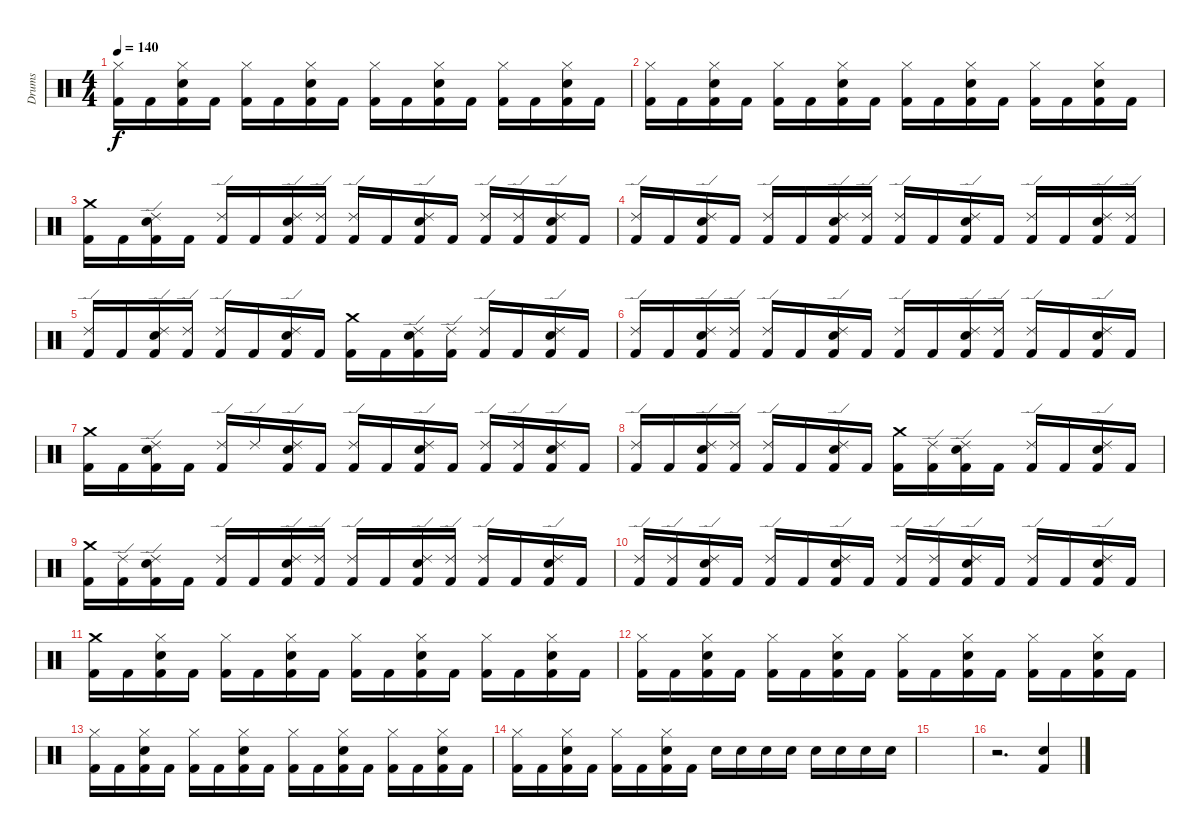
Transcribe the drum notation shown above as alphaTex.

\track ("Drums" "Drums") {instrument percussion}
\staff {score}
\articulation defaults
\ts (4 4)
\tempo 140
\clef neutral
\ks c
("Hi-Hat (closed)" "Kick (hit) 2").16{dy f} "Kick (hit) 2".16 ("Hi-Hat (closed)" "Electric Snare (hit)" "Kick (hit) 2").16 "Kick (hit) 2".16 ("Hi-Hat (closed)" "Kick (hit) 2").16 "Kick (hit) 2".16 ("Hi-Hat (closed)" "Electric Snare (hit)" "Kick (hit) 2").16 "Kick (hit) 2".16 ("Hi-Hat (closed)" "Kick (hit) 2").16 "Kick (hit) 2".16 ("Hi-Hat (closed)" "Electric Snare (hit)" "Kick (hit) 2").16 "Kick (hit) 2".16 ("Hi-Hat (closed)" "Kick (hit) 2").16 "Kick (hit) 2".16 ("Hi-Hat (closed)" "Electric Snare (hit)" "Kick (hit) 2").16 "Kick (hit) 2".16 |
("Hi-Hat (closed)" "Kick (hit) 2").16 "Kick (hit) 2".16 ("Hi-Hat (closed)" "Electric Snare (hit)" "Kick (hit) 2").16 "Kick (hit) 2".16 ("Hi-Hat (closed)" "Kick (hit) 2").16 "Kick (hit) 2".16 ("Hi-Hat (closed)" "Electric Snare (hit)" "Kick (hit) 2").16 "Kick (hit) 2".16 ("Hi-Hat (closed)" "Kick (hit) 2").16 "Kick (hit) 2".16 ("Hi-Hat (closed)" "Electric Snare (hit)" "Kick (hit) 2").16 "Kick (hit) 2".16 ("Hi-Hat (closed)" "Kick (hit) 2").16 "Kick (hit) 2".16 ("Hi-Hat (closed)" "Electric Snare (hit)" "Kick (hit) 2").16 "Kick (hit) 2".16 |
("Crash medium (hit)" "Kick (hit) 2").16 "Kick (hit) 2".16 ("Ride (edge) 2" "Electric Snare (hit)" "Kick (hit) 2").16 "Kick (hit) 2".16 ("Ride (edge) 2" "Kick (hit) 2").16 "Kick (hit) 2".16 ("Ride (edge) 2" "Electric Snare (hit)" "Kick (hit) 2").16 ("Ride (edge) 2" "Kick (hit) 2").16 ("Ride (edge) 2" "Kick (hit) 2").16 "Kick (hit) 2".16 ("Ride (edge) 2" "Electric Snare (hit)" "Kick (hit) 2").16 "Kick (hit) 2".16 ("Ride (edge) 2" "Kick (hit) 2").16 ("Ride (edge) 2" "Kick (hit) 2").16 ("Ride (edge) 2" "Electric Snare (hit)" "Kick (hit) 2").16 "Kick (hit) 2".16 |
("Ride (edge) 2" "Kick (hit) 2").16 "Kick (hit) 2".16 ("Ride (edge) 2" "Electric Snare (hit)" "Kick (hit) 2").16 "Kick (hit) 2".16 ("Ride (edge) 2" "Kick (hit) 2").16 "Kick (hit) 2".16 ("Ride (edge) 2" "Electric Snare (hit)" "Kick (hit) 2").16 ("Ride (edge) 2" "Kick (hit) 2").16 ("Ride (edge) 2" "Kick (hit) 2").16 "Kick (hit) 2".16 ("Ride (edge) 2" "Electric Snare (hit)" "Kick (hit) 2").16 "Kick (hit) 2".16 ("Ride (edge) 2" "Kick (hit) 2").16 "Kick (hit) 2".16 ("Ride (edge) 2" "Electric Snare (hit)" "Kick (hit) 2").16 ("Ride (edge) 2" "Kick (hit) 2").16 |
("Ride (edge) 2" "Kick (hit) 2").16 "Kick (hit) 2".16 ("Ride (edge) 2" "Electric Snare (hit)" "Kick (hit) 2").16 ("Ride (edge) 2" "Kick (hit) 2").16 ("Ride (edge) 2" "Kick (hit) 2").16 "Kick (hit) 2".16 ("Ride (edge) 2" "Electric Snare (hit)" "Kick (hit) 2").16 "Kick (hit) 2".16 ("Crash medium (hit)" "Kick (hit) 2").16 "Kick (hit) 2".16 ("Ride (edge) 2" "Electric Snare (hit)" "Kick (hit) 2").16 ("Ride (edge) 2" "Kick (hit) 2").16 ("Ride (edge) 2" "Kick (hit) 2").16 "Kick (hit) 2".16 ("Ride (edge) 2" "Electric Snare (hit)" "Kick (hit) 2").16 "Kick (hit) 2".16 |
("Ride (edge) 2" "Kick (hit) 2").16 "Kick (hit) 2".16 ("Ride (edge) 2" "Electric Snare (hit)" "Kick (hit) 2").16 ("Ride (edge) 2" "Kick (hit) 2").16 ("Ride (edge) 2" "Kick (hit) 2").16 "Kick (hit) 2".16 ("Ride (edge) 2" "Electric Snare (hit)" "Kick (hit) 2").16 "Kick (hit) 2".16 ("Ride (edge) 2" "Kick (hit) 2").16 "Kick (hit) 2".16 ("Ride (edge) 2" "Electric Snare (hit)" "Kick (hit) 2").16 ("Ride (edge) 2" "Kick (hit) 2").16 ("Ride (edge) 2" "Kick (hit) 2").16 "Kick (hit) 2".16 ("Ride (edge) 2" "Electric Snare (hit)" "Kick (hit) 2").16 "Kick (hit) 2".16 |
("Crash medium (hit)" "Kick (hit) 2").16 "Kick (hit) 2".16 ("Ride (edge) 2" "Electric Snare (hit)" "Kick (hit) 2").16 "Kick (hit) 2".16 ("Ride (edge) 2" "Kick (hit) 2").16 "Ride (edge) 2".16 ("Ride (edge) 2" "Electric Snare (hit)" "Kick (hit) 2").16 "Kick (hit) 2".16 ("Ride (edge) 2" "Kick (hit) 2").16 "Kick (hit) 2".16 ("Ride (edge) 2" "Electric Snare (hit)" "Kick (hit) 2").16 "Kick (hit) 2".16 ("Ride (edge) 2" "Kick (hit) 2").16 ("Ride (edge) 2" "Kick (hit) 2").16 ("Ride (edge) 2" "Electric Snare (hit)" "Kick (hit) 2").16 "Kick (hit) 2".16 |
("Ride (edge) 2" "Kick (hit) 2").16 "Kick (hit) 2".16 ("Ride (edge) 2" "Electric Snare (hit)" "Kick (hit) 2").16 ("Ride (edge) 2" "Kick (hit) 2").16 ("Ride (edge) 2" "Kick (hit) 2").16 "Kick (hit) 2".16 ("Ride (edge) 2" "Electric Snare (hit)" "Kick (hit) 2").16 "Kick (hit) 2".16 ("Crash medium (hit)" "Kick (hit) 2").16 ("Ride (edge) 2" "Kick (hit) 2").16 ("Ride (edge) 2" "Electric Snare (hit)" "Kick (hit) 2").16 "Kick (hit) 2".16 ("Ride (edge) 2" "Kick (hit) 2").16 "Kick (hit) 2".16 ("Ride (edge) 2" "Electric Snare (hit)" "Kick (hit) 2").16 "Kick (hit) 2".16 |
("Crash medium (hit)" "Kick (hit) 2").16 ("Ride (edge) 2" "Kick (hit) 2").16 ("Ride (edge) 2" "Electric Snare (hit)" "Kick (hit) 2").16 "Kick (hit) 2".16 ("Ride (edge) 2" "Kick (hit) 2").16 "Kick (hit) 2".16 ("Ride (edge) 2" "Electric Snare (hit)" "Kick (hit) 2").16 ("Ride (edge) 2" "Kick (hit) 2").16 ("Ride (edge) 2" "Kick (hit) 2").16 "Kick (hit) 2".16 ("Ride (edge) 2" "Electric Snare (hit)" "Kick (hit) 2").16 ("Ride (edge) 2" "Kick (hit) 2").16 ("Ride (edge) 2" "Kick (hit) 2").16 "Kick (hit) 2".16 ("Ride (edge) 2" "Electric Snare (hit)" "Kick (hit) 2").16 "Kick (hit) 2".16 |
("Ride (edge) 2" "Kick (hit) 2").16 ("Ride (edge) 2" "Kick (hit) 2").16 ("Ride (edge) 2" "Electric Snare (hit)" "Kick (hit) 2").16 "Kick (hit) 2".16 ("Ride (edge) 2" "Kick (hit) 2").16 "Kick (hit) 2".16 ("Ride (edge) 2" "Electric Snare (hit)" "Kick (hit) 2").16 "Kick (hit) 2".16 ("Ride (edge) 2" "Kick (hit) 2").16 ("Ride (edge) 2" "Kick (hit) 2").16 ("Ride (edge) 2" "Electric Snare (hit)" "Kick (hit) 2").16 "Kick (hit) 2".16 ("Ride (edge) 2" "Kick (hit) 2").16 "Kick (hit) 2".16 ("Ride (edge) 2" "Electric Snare (hit)" "Kick (hit) 2").16 "Kick (hit) 2".16 |
("Crash medium (hit)" "Kick (hit) 2").16 "Kick (hit) 2".16 ("Hi-Hat (closed)" "Electric Snare (hit)" "Kick (hit) 2").16 "Kick (hit) 2".16 ("Hi-Hat (closed)" "Kick (hit) 2").16 "Kick (hit) 2".16 ("Hi-Hat (closed)" "Electric Snare (hit)" "Kick (hit) 2").16 "Kick (hit) 2".16 ("Hi-Hat (closed)" "Kick (hit) 2").16 "Kick (hit) 2".16 ("Hi-Hat (closed)" "Electric Snare (hit)" "Kick (hit) 2").16 "Kick (hit) 2".16 ("Hi-Hat (closed)" "Kick (hit) 2").16 "Kick (hit) 2".16 ("Hi-Hat (closed)" "Electric Snare (hit)" "Kick (hit) 2").16 "Kick (hit) 2".16 |
("Hi-Hat (closed)" "Kick (hit) 2").16 "Kick (hit) 2".16 ("Hi-Hat (closed)" "Electric Snare (hit)" "Kick (hit) 2").16 "Kick (hit) 2".16 ("Hi-Hat (closed)" "Kick (hit) 2").16 "Kick (hit) 2".16 ("Hi-Hat (closed)" "Electric Snare (hit)" "Kick (hit) 2").16 "Kick (hit) 2".16 ("Hi-Hat (closed)" "Kick (hit) 2").16 "Kick (hit) 2".16 ("Hi-Hat (closed)" "Electric Snare (hit)" "Kick (hit) 2").16 "Kick (hit) 2".16 ("Hi-Hat (closed)" "Kick (hit) 2").16 "Kick (hit) 2".16 ("Hi-Hat (closed)" "Electric Snare (hit)" "Kick (hit) 2").16 "Kick (hit) 2".16 |
("Hi-Hat (closed)" "Kick (hit) 2").16 "Kick (hit) 2".16 ("Hi-Hat (closed)" "Electric Snare (hit)" "Kick (hit) 2").16 "Kick (hit) 2".16 ("Hi-Hat (closed)" "Kick (hit) 2").16 "Kick (hit) 2".16 ("Hi-Hat (closed)" "Electric Snare (hit)" "Kick (hit) 2").16 "Kick (hit) 2".16 ("Hi-Hat (closed)" "Kick (hit) 2").16 "Kick (hit) 2".16 ("Hi-Hat (closed)" "Electric Snare (hit)" "Kick (hit) 2").16 "Kick (hit) 2".16 ("Hi-Hat (closed)" "Kick (hit) 2").16 "Kick (hit) 2".16 ("Hi-Hat (closed)" "Electric Snare (hit)" "Kick (hit) 2").16 "Kick (hit) 2".16 |
("Hi-Hat (closed)" "Kick (hit) 2").16 "Kick (hit) 2".16 ("Hi-Hat (closed)" "Electric Snare (hit)" "Kick (hit) 2").16 "Kick (hit) 2".16 ("Hi-Hat (closed)" "Kick (hit) 2").16 "Kick (hit) 2".16 ("Hi-Hat (closed)" "Electric Snare (hit)" "Kick (hit) 2").16 "Kick (hit) 2".16 "Electric Snare (hit)".16 "Electric Snare (hit)".16 "Electric Snare (hit)".16 "Electric Snare (hit)".16 "Electric Snare (hit)".16 "Electric Snare (hit)".16 "Electric Snare (hit)".16 "Electric Snare (hit)".16 |
|
r.2{d} ("Electric Snare (hit)" "Kick (hit) 2").4
